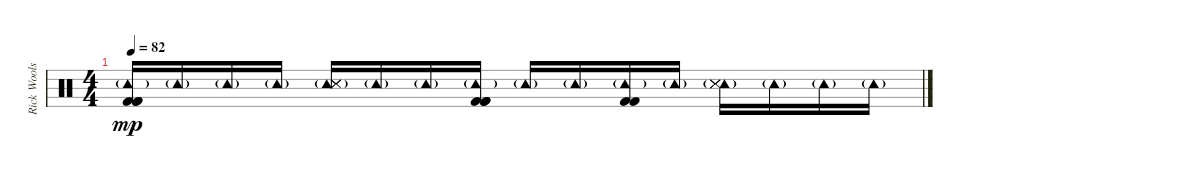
\track ("Rick Woolstenhulme [Drums]" "Rick Wools") {instrument percussion}
\staff {score}
\articulation defaults
\ts (4 4)
\tempo 82
\clef neutral
\ks c
("Tambourine (hit)"{g} "Kick (hit) 2" "Kick (hit) 2" "Kick (hit) 2").16{dy mp} "Tambourine (hit)"{g}.16 "Tambourine (hit)"{g}.16 "Tambourine (hit)"{g}.16 ("Tambourine (hit)"{g} "Snare (side stick) 3" "Snare (side stick) 3" "Snare (side stick) 3").16 "Tambourine (hit)"{g}.16 "Tambourine (hit)"{g}.16 ("Tambourine (hit)"{g} "Kick (hit) 2" "Kick (hit) 2" "Kick (hit) 2").16 "Tambourine (hit)"{g}.16 "Tambourine (hit)"{g}.16 ("Tambourine (hit)"{g} "Kick (hit) 2" "Kick (hit) 2").16 "Tambourine (hit)"{g}.16 ("Tambourine (hit)"{g} "Snare (side stick) 3" "Snare (side stick) 3" "Snare (side stick) 3").16 "Tambourine (hit)"{g}.16 "Tambourine (hit)"{g}.16 "Tambourine (hit)"{g}.16
